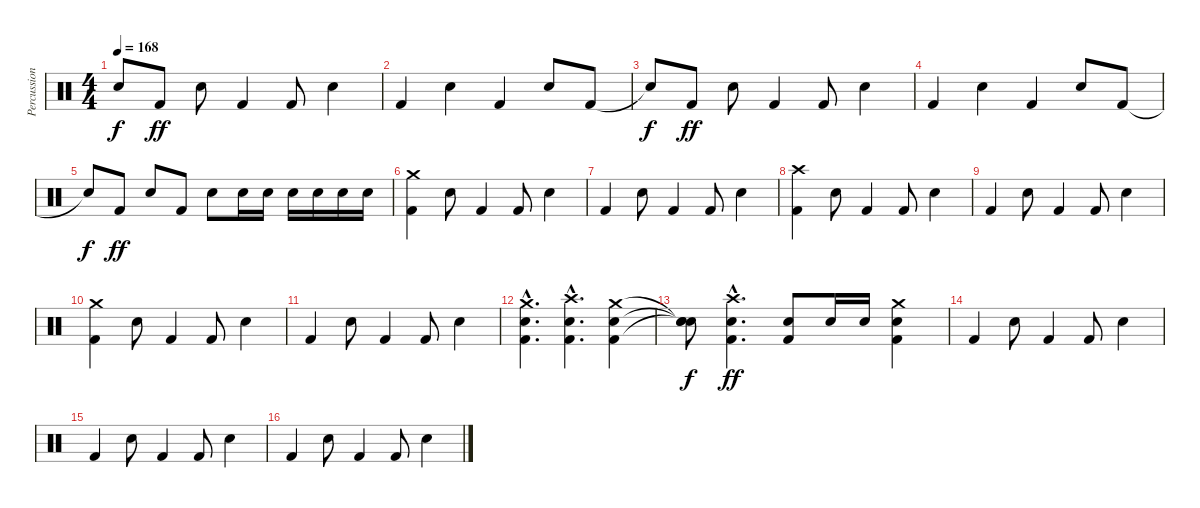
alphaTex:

\track ("Percussions" "Percussion") {instrument percussion}
\staff {score}
\articulation defaults
\ts (4 4)
\tempo 168
\clef neutral
\ks c "Snare (hit)"{t}.8{dy f} "Kick (hit) 2".8{dy ff} "Snare (hit) 2".8 "Kick (hit) 2".4 "Kick (hit) 2".8 "Snare (hit) 2".4
|
"Kick (hit) 2".4 "Snare (hit) 2".4 "Kick (hit) 2".4 "Snare (hit) 2".8 "Kick (hit) 2".8 |
"Snare (hit)"{t}.8{dy f} "Kick (hit) 2".8{dy ff} "Snare (hit) 2".8 "Kick (hit) 2".4 "Kick (hit) 2".8 "Snare (hit) 2".4 |
"Kick (hit) 2".4 "Snare (hit) 2".4 "Kick (hit) 2".4 "Snare (hit) 2".8 "Kick (hit) 2".8 |
"Snare (hit)"{t}.8{dy f} "Kick (hit) 2".8{dy ff} "Snare (hit) 2".8 "Kick (hit) 2".8 "Snare (hit) 2".8 "Snare (hit) 2".16 "Snare (hit) 2".16 "Snare (hit) 2".16 "Snare (hit) 2".16 "Snare (hit) 2".16 "Snare (hit) 2".16 |
("Kick (hit) 2" "Crash medium (hit)").4 "Snare (hit) 2".8 "Kick (hit) 2".4 "Kick (hit) 2".8 "Snare (hit) 2".4 |
"Kick (hit) 2".4 "Snare (hit) 2".8 "Kick (hit) 2".4 "Kick (hit) 2".8 "Snare (hit) 2".4 |
("Kick (hit) 2" "Crash high (hit)").4 "Snare (hit) 2".8 "Kick (hit) 2".4 "Kick (hit) 2".8 "Snare (hit) 2".4 |
"Kick (hit) 2".4 "Snare (hit) 2".8 "Kick (hit) 2".4 "Kick (hit) 2".8 "Snare (hit) 2".4 |
("Kick (hit) 2" "Crash medium (hit)").4 "Snare (hit) 2".8 "Kick (hit) 2".4 "Kick (hit) 2".8 "Snare (hit) 2".4 |
"Kick (hit) 2".4 "Snare (hit) 2".8 "Kick (hit) 2".4 "Kick (hit) 2".8 "Snare (hit) 2".4 |
("Kick (hit) 2"{hac} "Snare (hit) 2"{hac} "Crash medium (hit)"{hac}).4{d} ("Kick (hit) 2"{hac} "Snare (hit) 2"{hac} "Crash high (hit)"{hac}).4{d} ("Kick (hit) 2" "Snare (hit) 2" "Crash medium (hit)").4 |
("Snare (hit)"{t} "Snare (hit)"{t} "Snare (hit)"{t}).8{dy f} ("Kick (hit) 2"{hac} "Snare (hit) 2"{hac} "Crash high (hit)"{hac}).4{d dy ff} ("Kick (hit) 2" "Snare (hit) 2").8 "Snare (hit) 2".16 "Snare (hit) 2".16 ("Kick (hit) 2" "Snare (hit) 2" "Crash medium (hit)").4 |
"Kick (hit) 2".4 "Snare (hit) 2".8 "Kick (hit) 2".4 "Kick (hit) 2".8 "Snare (hit) 2".4 |
"Kick (hit) 2".4 "Snare (hit) 2".8 "Kick (hit) 2".4 "Kick (hit) 2".8 "Snare (hit) 2".4 |
"Kick (hit) 2".4 "Snare (hit) 2".8 "Kick (hit) 2".4 "Kick (hit) 2".8 "Snare (hit) 2".4
